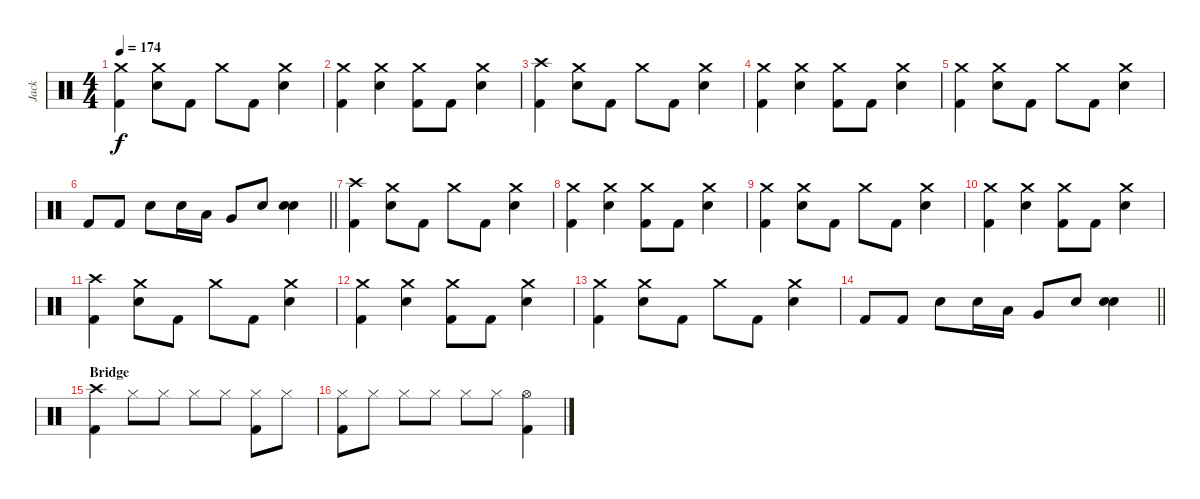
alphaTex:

\track ("Jack" "Jack") {instrument percussion}
\staff {score}
\articulation defaults
\ts (4 4)
\tempo 174
\clef neutral
\ks c
("Crash medium (hit)" "Kick (hit) 2").4{dy f} ("Crash medium (hit)" "Electric Snare (hit)").8 "Kick (hit) 2".8 "Crash medium (hit)".8 "Kick (hit) 2".8 ("Crash medium (hit)" "Electric Snare (hit)").4 |
("Crash medium (hit)" "Kick (hit) 2").4 ("Crash medium (hit)" "Electric Snare (hit)").4 ("Crash medium (hit)" "Kick (hit) 2").8 "Kick (hit) 2".8 ("Crash medium (hit)" "Electric Snare (hit)").4 |
("Crash high (hit)" "Kick (hit) 2").4 ("Crash medium (hit)" "Electric Snare (hit)").8 "Kick (hit) 2".8 "Crash medium (hit)".8 "Kick (hit) 2".8 ("Crash medium (hit)" "Electric Snare (hit)").4 |
("Crash medium (hit)" "Kick (hit) 2").4 ("Crash medium (hit)" "Electric Snare (hit)").4 ("Crash medium (hit)" "Kick (hit) 2").8 "Kick (hit) 2".8 ("Crash medium (hit)" "Electric Snare (hit)").4 |
("Crash medium (hit)" "Kick (hit) 2").4 ("Crash medium (hit)" "Electric Snare (hit)").8 "Kick (hit) 2".8 "Crash medium (hit)".8 "Kick (hit) 2".8 ("Crash medium (hit)" "Electric Snare (hit)").4 |
\barLineRight lightlight "Kick (hit) 2".8 "Kick (hit) 2".8 "Electric Snare (hit)".8 "Electric Snare (hit)".16 "Low Tom (hit)".16 "Very Low Tom (hit)".8 "Electric Snare (hit)".8
("Electric Snare (hit)" "Electric Snare (hit)").4 |
("Crash high (hit)" "Kick (hit) 2").4 ("Crash medium (hit)" "Electric Snare (hit)").8 "Kick (hit) 2".8 "Crash medium (hit)".8 "Kick (hit) 2".8 ("Crash medium (hit)" "Electric Snare (hit)").4 |
("Crash medium (hit)" "Kick (hit) 2").4 ("Crash medium (hit)" "Electric Snare (hit)").4 ("Crash medium (hit)" "Kick (hit) 2").8 "Kick (hit) 2".8 ("Crash medium (hit)" "Electric Snare (hit)").4 |
("Crash medium (hit)" "Kick (hit) 2").4 ("Crash medium (hit)" "Electric Snare (hit)").8 "Kick (hit) 2".8 "Crash medium (hit)".8 "Kick (hit) 2".8 ("Crash medium (hit)" "Electric Snare (hit)").4 |
("Crash medium (hit)" "Kick (hit) 2").4 ("Crash medium (hit)" "Electric Snare (hit)").4 ("Crash medium (hit)" "Kick (hit) 2").8 "Kick (hit) 2".8 ("Crash medium (hit)" "Electric Snare (hit)").4 |
("Crash high (hit)" "Kick (hit) 2").4 ("Crash medium (hit)" "Electric Snare (hit)").8 "Kick (hit) 2".8 "Crash medium (hit)".8 "Kick (hit) 2".8 ("Crash medium (hit)" "Electric Snare (hit)").4 |
("Crash medium (hit)" "Kick (hit) 2").4 ("Crash medium (hit)" "Electric Snare (hit)").4 ("Crash medium (hit)" "Kick (hit) 2").8 "Kick (hit) 2".8 ("Crash medium (hit)" "Electric Snare (hit)").4 |
("Crash medium (hit)" "Kick (hit) 2").4 ("Crash medium (hit)" "Electric Snare (hit)").8 "Kick (hit) 2".8 "Crash medium (hit)".8 "Kick (hit) 2".8 ("Crash medium (hit)" "Electric Snare (hit)").4 |
\barLineRight lightlight "Kick (hit) 2".8 "Kick (hit) 2".8 "Electric Snare (hit)".8 "Electric Snare (hit)".16 "Low Tom (hit)".16 "Very Low Tom (hit)".8 "Electric Snare (hit)".8
("Electric Snare (hit)" "Electric Snare (hit)").4 |
\section ("" "Bridge")
("Crash high (hit)" "Kick (hit) 2").4 "Hi-Hat (closed)".8 "Hi-Hat (closed)".8 "Hi-Hat (closed)".8 "Hi-Hat (closed)".8 ("Hi-Hat (closed)" "Kick (hit) 2").8 "Hi-Hat (closed)".8 |
("Hi-Hat (closed)" "Kick (hit) 2").8 "Hi-Hat (closed)".8 "Hi-Hat (closed)".8 "Hi-Hat (closed)".8 "Hi-Hat (closed)".8 "Hi-Hat (closed)".8 ("Hi-Hat (open)" "Kick (hit) 2").4
